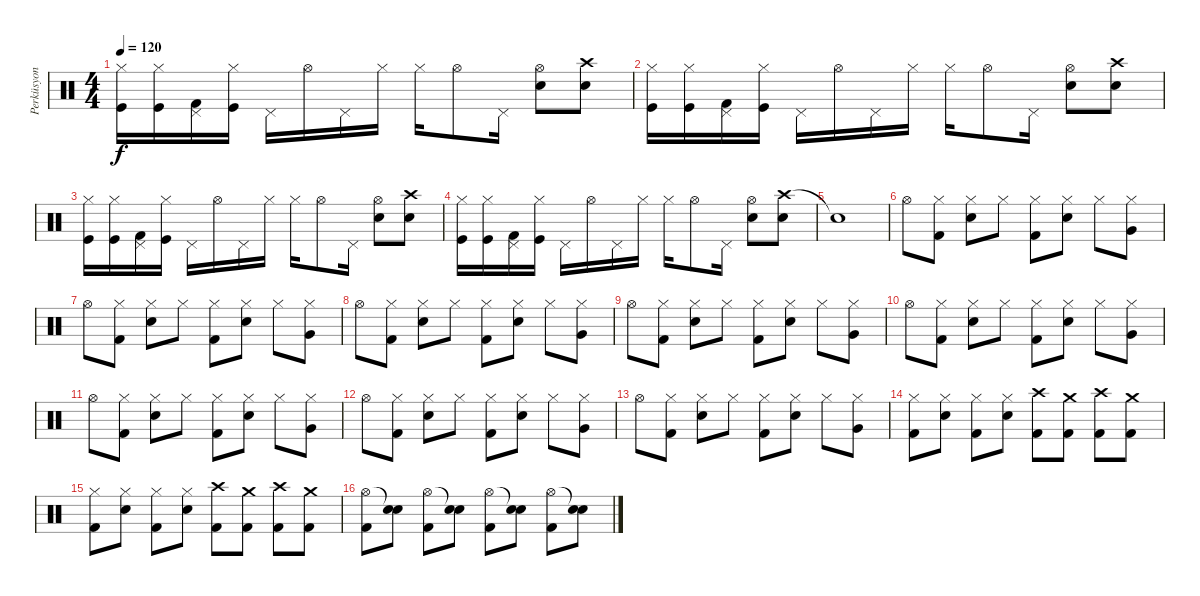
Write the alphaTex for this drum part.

\track ("Perküsyon" "Perküsyon") {instrument percussion}
\staff {score}
\articulation defaults
\ts (4 4)
\tempo 120
\clef neutral
\ks c
("Hi-Hat (closed)" "Kick (hit)").16{dy f} ("Hi-Hat (closed)" "Kick (hit)").16 ("Pedal Hi-Hat (hit)" "Kick (hit) 2").16 ("Hi-Hat (closed)" "Kick (hit)").16 "Pedal Hi-Hat (hit)".16 "Hi-Hat (open)".16 "Pedal Hi-Hat (hit)".16 "Hi-Hat (closed)".16 "Hi-Hat (closed)".16 "Hi-Hat (open)".8 "Pedal Hi-Hat (hit)".16 ("Hi-Hat (open)" "Electric Snare (hit)").8 ("Crash high (hit)" "Snare (hit) 2").8 |
("Hi-Hat (closed)" "Kick (hit)").16 ("Hi-Hat (closed)" "Kick (hit)").16 ("Pedal Hi-Hat (hit)" "Kick (hit) 2").16 ("Hi-Hat (closed)" "Kick (hit)").16 "Pedal Hi-Hat (hit)".16 "Hi-Hat (open)".16 "Pedal Hi-Hat (hit)".16 "Hi-Hat (closed)".16 "Hi-Hat (closed)".16 "Hi-Hat (open)".8 "Pedal Hi-Hat (hit)".16 ("Hi-Hat (open)" "Electric Snare (hit)").8 ("Crash high (hit)" "Snare (hit) 2").8 |
("Hi-Hat (closed)" "Kick (hit)").16 ("Hi-Hat (closed)" "Kick (hit)").16 ("Pedal Hi-Hat (hit)" "Kick (hit) 2").16 ("Hi-Hat (closed)" "Kick (hit)").16 "Pedal Hi-Hat (hit)".16 "Hi-Hat (open)".16 "Pedal Hi-Hat (hit)".16 "Hi-Hat (closed)".16 "Hi-Hat (closed)".16 "Hi-Hat (open)".8 "Pedal Hi-Hat (hit)".16 ("Hi-Hat (open)" "Electric Snare (hit)").8 ("Crash high (hit)" "Snare (hit) 2").8 |
("Hi-Hat (closed)" "Kick (hit)").16 ("Hi-Hat (closed)" "Kick (hit)").16 ("Pedal Hi-Hat (hit)" "Kick (hit) 2").16 ("Hi-Hat (closed)" "Kick (hit)").16 "Pedal Hi-Hat (hit)".16 "Hi-Hat (open)".16 "Pedal Hi-Hat (hit)".16 "Hi-Hat (closed)".16 "Hi-Hat (closed)".16 "Hi-Hat (open)".8 "Pedal Hi-Hat (hit)".16 ("Hi-Hat (open)" "Electric Snare (hit)").8 ("Crash high (hit)" "Snare (hit) 2").8 |
"Snare (hit)"{t}.1 |
"Hi-Hat (open)".8 ("Hi-Hat (closed)" "Kick (hit) 2").8 ("Hi-Hat (closed)" "Electric Snare (hit)").8 "Hi-Hat (closed)".8 ("Hi-Hat (closed)" "Kick (hit) 2").8 ("Hi-Hat (closed)" "Electric Snare (hit)").8 "Hi-Hat (closed)".8 ("Hi-Hat (closed)" "Very Low Tom (hit)").8 |
"Hi-Hat (open)".8 ("Hi-Hat (closed)" "Kick (hit) 2").8 ("Hi-Hat (closed)" "Electric Snare (hit)").8 "Hi-Hat (closed)".8 ("Hi-Hat (closed)" "Kick (hit) 2").8 ("Hi-Hat (closed)" "Electric Snare (hit)").8 "Hi-Hat (closed)".8 ("Hi-Hat (closed)" "Very Low Tom (hit)").8 |
"Hi-Hat (open)".8 ("Hi-Hat (closed)" "Kick (hit) 2").8 ("Hi-Hat (closed)" "Electric Snare (hit)").8 "Hi-Hat (closed)".8 ("Hi-Hat (closed)" "Kick (hit) 2").8 ("Hi-Hat (closed)" "Electric Snare (hit)").8 "Hi-Hat (closed)".8 ("Hi-Hat (closed)" "Very Low Tom (hit)").8 |
"Hi-Hat (open)".8 ("Hi-Hat (closed)" "Kick (hit) 2").8 ("Hi-Hat (closed)" "Electric Snare (hit)").8 "Hi-Hat (closed)".8 ("Hi-Hat (closed)" "Kick (hit) 2").8 ("Hi-Hat (closed)" "Electric Snare (hit)").8 "Hi-Hat (closed)".8 ("Hi-Hat (closed)" "Very Low Tom (hit)").8 |
"Hi-Hat (open)".8 ("Hi-Hat (closed)" "Kick (hit) 2").8 ("Hi-Hat (closed)" "Electric Snare (hit)").8 "Hi-Hat (closed)".8 ("Hi-Hat (closed)" "Kick (hit) 2").8 ("Hi-Hat (closed)" "Electric Snare (hit)").8 "Hi-Hat (closed)".8 ("Hi-Hat (closed)" "Very Low Tom (hit)").8 |
"Hi-Hat (open)".8 ("Hi-Hat (closed)" "Kick (hit) 2").8 ("Hi-Hat (closed)" "Electric Snare (hit)").8 "Hi-Hat (closed)".8 ("Hi-Hat (closed)" "Kick (hit) 2").8 ("Hi-Hat (closed)" "Electric Snare (hit)").8 "Hi-Hat (closed)".8 ("Hi-Hat (closed)" "Very Low Tom (hit)").8 |
"Hi-Hat (open)".8 ("Hi-Hat (closed)" "Kick (hit) 2").8 ("Hi-Hat (closed)" "Electric Snare (hit)").8 "Hi-Hat (closed)".8 ("Hi-Hat (closed)" "Kick (hit) 2").8 ("Hi-Hat (closed)" "Electric Snare (hit)").8 "Hi-Hat (closed)".8 ("Hi-Hat (closed)" "Very Low Tom (hit)").8 |
"Hi-Hat (open)".8 ("Hi-Hat (closed)" "Kick (hit) 2").8 ("Hi-Hat (closed)" "Electric Snare (hit)").8 "Hi-Hat (closed)".8 ("Hi-Hat (closed)" "Kick (hit) 2").8 ("Hi-Hat (closed)" "Electric Snare (hit)").8 "Hi-Hat (closed)".8 ("Hi-Hat (closed)" "Very Low Tom (hit)").8 |
("Hi-Hat (closed)" "Kick (hit) 2").8 ("Hi-Hat (closed)" "Electric Snare (hit)").8 ("Hi-Hat (closed)" "Kick (hit) 2").8 ("Hi-Hat (closed)" "Electric Snare (hit)").8 ("Crash high (hit)" "Kick (hit) 2").8 ("Crash medium (hit)" "Kick (hit) 2").8 ("Crash high (hit)" "Kick (hit) 2").8 ("Crash medium (hit)" "Kick (hit) 2").8 |
("Hi-Hat (closed)" "Kick (hit) 2").8 ("Hi-Hat (closed)" "Electric Snare (hit)").8 ("Hi-Hat (closed)" "Kick (hit) 2").8 ("Hi-Hat (closed)" "Electric Snare (hit)").8 ("Crash high (hit)" "Kick (hit) 2").8 ("Crash medium (hit)" "Kick (hit) 2").8 ("Crash high (hit)" "Kick (hit) 2").8 ("Crash medium (hit)" "Kick (hit) 2").8 |
("Hi-Hat (open)" "Kick (hit) 2").8 ("Snare (hit)"{t} "Electric Snare (hit)").8 ("Hi-Hat (open)" "Kick (hit) 2").8 ("Snare (hit)"{t} "Electric Snare (hit)").8 ("Hi-Hat (open)" "Kick (hit) 2").8 ("Snare (hit)"{t} "Electric Snare (hit)").8 ("Hi-Hat (open)" "Kick (hit) 2").8 ("Snare (hit)"{t} "Electric Snare (hit)").8
